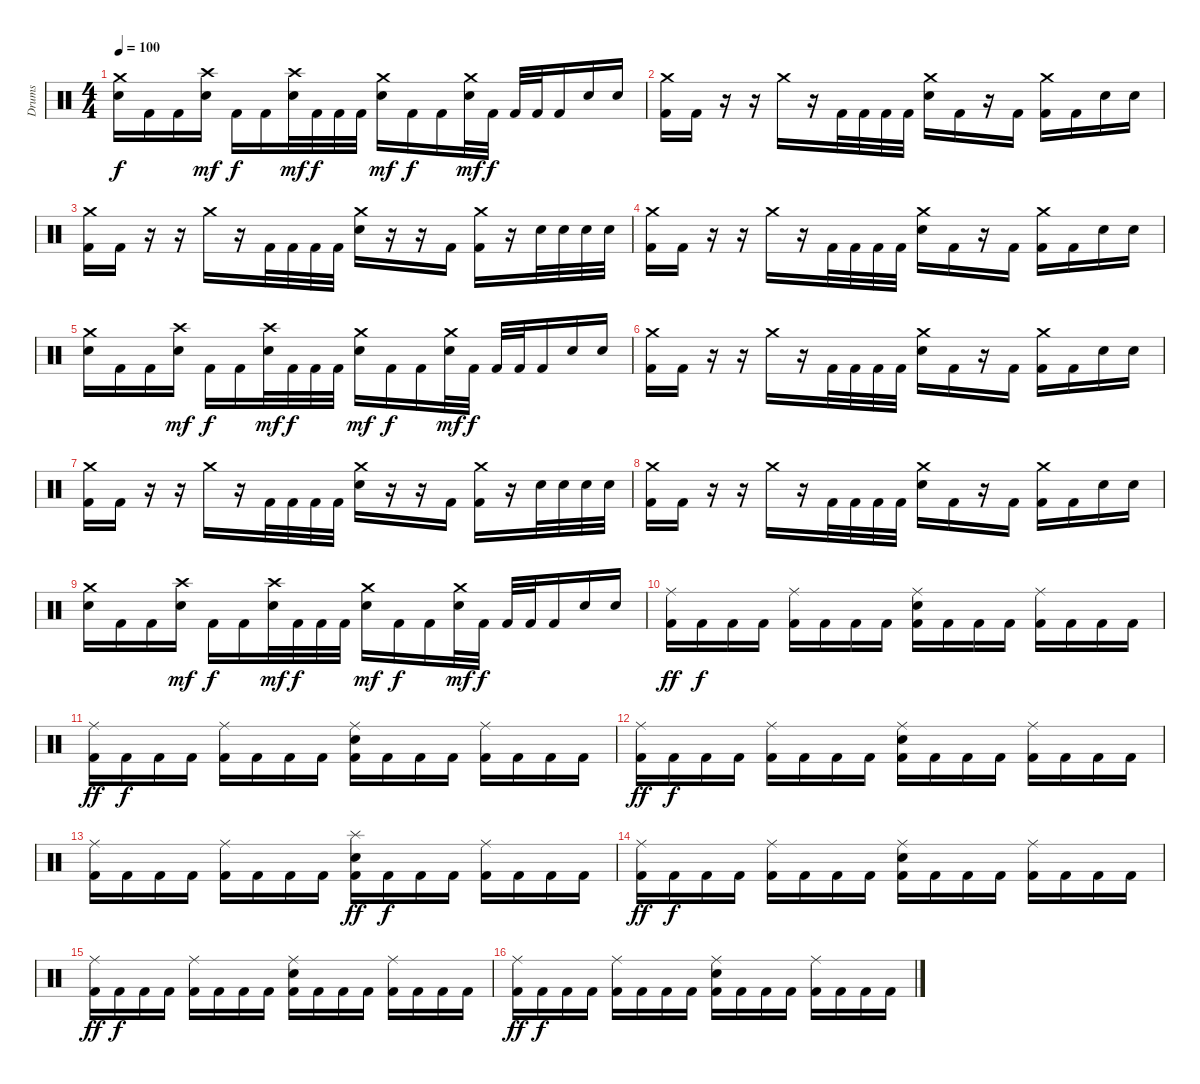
\track ("Drums" "Drums") {instrument percussion}
\staff {score}
\articulation defaults
\ts (4 4)
\tempo 100
\clef neutral
\ks c
("Electric Snare (hit)" "Crash medium (hit)").16{dy f} "Kick (hit) 2".16 "Kick (hit) 2".16 ("Electric Snare (hit)" "Crash high (hit)").16{dy mf} "Kick (hit) 2".16{dy f} "Kick (hit) 2".16 ("Electric Snare (hit)" "Crash high (hit)").32{dy mf} "Kick (hit) 2".32{dy f} "Kick (hit) 2".32 "Kick (hit) 2".32 ("Electric Snare (hit)" "Crash medium (hit)").16{dy mf} "Kick (hit) 2".16{dy f} "Kick (hit) 2".16 ("Electric Snare (hit)" "Crash medium (hit)").32{dy mf} "Kick (hit) 2".32{dy f} "Kick (hit) 2".32 "Kick (hit) 2".32 "Kick (hit) 2".16 "Electric Snare (hit)".16 "Electric Snare (hit)".16 |
("Kick (hit) 2" "Crash medium (hit)").16 "Kick (hit) 2".16 r.16 r.16 "Crash medium (hit)".16 r.16 "Kick (hit) 2".32 "Kick (hit) 2".32 "Kick (hit) 2".32 "Kick (hit) 2".32 ("Electric Snare (hit)" "Crash medium (hit)").16 "Kick (hit) 2".16 r.16 "Kick (hit) 2".16 ("Kick (hit) 2" "Crash medium (hit)").16 "Kick (hit) 2".16 "Electric Snare (hit)".16 "Electric Snare (hit)".16 |
("Kick (hit) 2" "Crash medium (hit)").16 "Kick (hit) 2".16 r.16 r.16 "Crash medium (hit)".16 r.16 "Kick (hit) 2".32 "Kick (hit) 2".32 "Kick (hit) 2".32 "Kick (hit) 2".32 ("Electric Snare (hit)" "Crash medium (hit)").16 r.16 r.16 "Kick (hit) 2".16 ("Kick (hit) 2" "Crash medium (hit)").16 r.16 "Electric Snare (hit)".32 "Electric Snare (hit)".32 "Electric Snare (hit)".32 "Electric Snare (hit)".32 |
("Kick (hit) 2" "Crash medium (hit)").16 "Kick (hit) 2".16 r.16 r.16 "Crash medium (hit)".16 r.16 "Kick (hit) 2".32 "Kick (hit) 2".32 "Kick (hit) 2".32 "Kick (hit) 2".32 ("Electric Snare (hit)" "Crash medium (hit)").16 "Kick (hit) 2".16 r.16 "Kick (hit) 2".16 ("Kick (hit) 2" "Crash medium (hit)").16 "Kick (hit) 2".16 "Electric Snare (hit)".16 "Electric Snare (hit)".16 |
("Electric Snare (hit)" "Crash medium (hit)").16 "Kick (hit) 2".16 "Kick (hit) 2".16 ("Electric Snare (hit)" "Crash high (hit)").16{dy mf} "Kick (hit) 2".16{dy f} "Kick (hit) 2".16 ("Electric Snare (hit)" "Crash high (hit)").32{dy mf} "Kick (hit) 2".32{dy f} "Kick (hit) 2".32 "Kick (hit) 2".32 ("Electric Snare (hit)" "Crash medium (hit)").16{dy mf} "Kick (hit) 2".16{dy f} "Kick (hit) 2".16 ("Electric Snare (hit)" "Crash medium (hit)").32{dy mf} "Kick (hit) 2".32{dy f} "Kick (hit) 2".32 "Kick (hit) 2".32 "Kick (hit) 2".16 "Electric Snare (hit)".16 "Electric Snare (hit)".16 |
("Kick (hit) 2" "Crash medium (hit)").16 "Kick (hit) 2".16 r.16 r.16 "Crash medium (hit)".16 r.16 "Kick (hit) 2".32 "Kick (hit) 2".32 "Kick (hit) 2".32 "Kick (hit) 2".32 ("Electric Snare (hit)" "Crash medium (hit)").16 "Kick (hit) 2".16 r.16 "Kick (hit) 2".16 ("Kick (hit) 2" "Crash medium (hit)").16 "Kick (hit) 2".16 "Electric Snare (hit)".16 "Electric Snare (hit)".16 |
("Kick (hit) 2" "Crash medium (hit)").16 "Kick (hit) 2".16 r.16 r.16 "Crash medium (hit)".16 r.16 "Kick (hit) 2".32 "Kick (hit) 2".32 "Kick (hit) 2".32 "Kick (hit) 2".32 ("Electric Snare (hit)" "Crash medium (hit)").16 r.16 r.16 "Kick (hit) 2".16 ("Kick (hit) 2" "Crash medium (hit)").16 r.16 "Electric Snare (hit)".32 "Electric Snare (hit)".32 "Electric Snare (hit)".32 "Electric Snare (hit)".32 |
("Kick (hit) 2" "Crash medium (hit)").16 "Kick (hit) 2".16 r.16 r.16 "Crash medium (hit)".16 r.16 "Kick (hit) 2".32 "Kick (hit) 2".32 "Kick (hit) 2".32 "Kick (hit) 2".32 ("Electric Snare (hit)" "Crash medium (hit)").16 "Kick (hit) 2".16 r.16 "Kick (hit) 2".16 ("Kick (hit) 2" "Crash medium (hit)").16 "Kick (hit) 2".16 "Electric Snare (hit)".16 "Electric Snare (hit)".16 |
("Electric Snare (hit)" "Crash medium (hit)").16 "Kick (hit) 2".16 "Kick (hit) 2".16 ("Electric Snare (hit)" "Crash high (hit)").16{dy mf} "Kick (hit) 2".16{dy f} "Kick (hit) 2".16 ("Electric Snare (hit)" "Crash high (hit)").32{dy mf} "Kick (hit) 2".32{dy f} "Kick (hit) 2".32 "Kick (hit) 2".32 ("Electric Snare (hit)" "Crash medium (hit)").16{dy mf} "Kick (hit) 2".16{dy f} "Kick (hit) 2".16 ("Electric Snare (hit)" "Crash medium (hit)").32{dy mf} "Kick (hit) 2".32{dy f} "Kick (hit) 2".32 "Kick (hit) 2".32 "Kick (hit) 2".16 "Electric Snare (hit)".16 "Electric Snare (hit)".16 |
("Kick (hit) 2" "Ride (middle)").16{dy ff} "Kick (hit) 2".16{dy f} "Kick (hit) 2".16 "Kick (hit) 2".16 ("Kick (hit) 2" "Ride (middle)").16 "Kick (hit) 2".16 "Kick (hit) 2".16 "Kick (hit) 2".16 ("Kick (hit) 2" "Electric Snare (hit)" "Ride (middle)").16 "Kick (hit) 2".16 "Kick (hit) 2".16 "Kick (hit) 2".16 ("Kick (hit) 2" "Ride (middle)").16 "Kick (hit) 2".16 "Kick (hit) 2".16 "Kick (hit) 2".16 |
("Kick (hit) 2" "Ride (middle)").16{dy ff} "Kick (hit) 2".16{dy f} "Kick (hit) 2".16 "Kick (hit) 2".16 ("Kick (hit) 2" "Ride (middle)").16 "Kick (hit) 2".16 "Kick (hit) 2".16 "Kick (hit) 2".16 ("Kick (hit) 2" "Electric Snare (hit)" "Ride (middle)").16 "Kick (hit) 2".16 "Kick (hit) 2".16 "Kick (hit) 2".16 ("Kick (hit) 2" "Ride (middle)").16 "Kick (hit) 2".16 "Kick (hit) 2".16 "Kick (hit) 2".16 |
("Kick (hit) 2" "Ride (middle)").16{dy ff} "Kick (hit) 2".16{dy f} "Kick (hit) 2".16 "Kick (hit) 2".16 ("Kick (hit) 2" "Ride (middle)").16 "Kick (hit) 2".16 "Kick (hit) 2".16 "Kick (hit) 2".16 ("Kick (hit) 2" "Electric Snare (hit)" "Ride (middle)").16 "Kick (hit) 2".16 "Kick (hit) 2".16 "Kick (hit) 2".16 ("Kick (hit) 2" "Ride (middle)").16 "Kick (hit) 2".16 "Kick (hit) 2".16 "Kick (hit) 2".16 |
("Kick (hit) 2" "Ride (middle)").16 "Kick (hit) 2".16 "Kick (hit) 2".16 "Kick (hit) 2".16 ("Kick (hit) 2" "Ride (middle)").16 "Kick (hit) 2".16 "Kick (hit) 2".16 "Kick (hit) 2".16 ("Kick (hit) 2" "Electric Snare (hit)" "Splash (hit)").16{dy ff} "Kick (hit) 2".16{dy f} "Kick (hit) 2".16 "Kick (hit) 2".16 ("Kick (hit) 2" "Ride (middle)").16 "Kick (hit) 2".16 "Kick (hit) 2".16 "Kick (hit) 2".16 |
("Kick (hit) 2" "Ride (middle)").16{dy ff} "Kick (hit) 2".16{dy f} "Kick (hit) 2".16 "Kick (hit) 2".16 ("Kick (hit) 2" "Ride (middle)").16 "Kick (hit) 2".16 "Kick (hit) 2".16 "Kick (hit) 2".16 ("Kick (hit) 2" "Electric Snare (hit)" "Ride (middle)").16 "Kick (hit) 2".16 "Kick (hit) 2".16 "Kick (hit) 2".16 ("Kick (hit) 2" "Ride (middle)").16 "Kick (hit) 2".16 "Kick (hit) 2".16 "Kick (hit) 2".16 |
("Kick (hit) 2" "Ride (middle)").16{dy ff} "Kick (hit) 2".16{dy f} "Kick (hit) 2".16 "Kick (hit) 2".16 ("Kick (hit) 2" "Ride (middle)").16 "Kick (hit) 2".16 "Kick (hit) 2".16 "Kick (hit) 2".16 ("Kick (hit) 2" "Electric Snare (hit)" "Ride (middle)").16 "Kick (hit) 2".16 "Kick (hit) 2".16 "Kick (hit) 2".16 ("Kick (hit) 2" "Ride (middle)").16 "Kick (hit) 2".16 "Kick (hit) 2".16 "Kick (hit) 2".16 |
("Kick (hit) 2" "Ride (middle)").16{dy ff} "Kick (hit) 2".16{dy f} "Kick (hit) 2".16 "Kick (hit) 2".16 ("Kick (hit) 2" "Ride (middle)").16 "Kick (hit) 2".16 "Kick (hit) 2".16 "Kick (hit) 2".16 ("Kick (hit) 2" "Electric Snare (hit)" "Ride (middle)").16 "Kick (hit) 2".16 "Kick (hit) 2".16 "Kick (hit) 2".16 ("Kick (hit) 2" "Ride (middle)").16 "Kick (hit) 2".16 "Kick (hit) 2".16 "Kick (hit) 2".16
